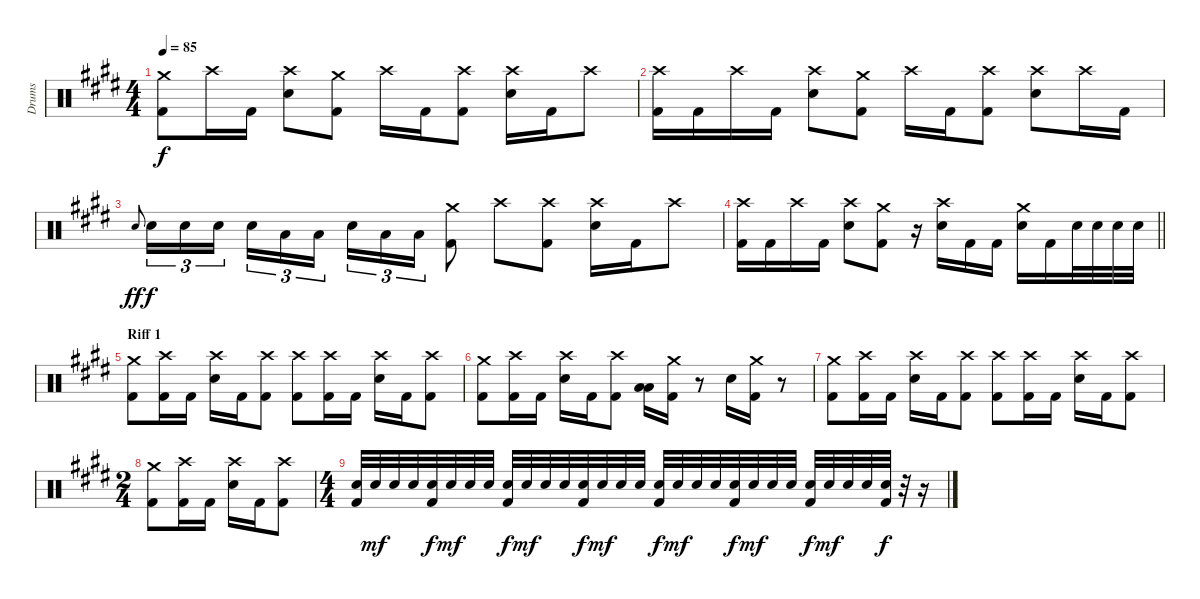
\track ("Drums" "Drums") {instrument percussion}
\staff {score}
\articulation defaults
\ts (4 4)
\tempo 85
\clef neutral
\ks e
("Crash medium (hit)" "Kick (hit) 2").8{dy f} "Crash high (hit)".16 "Kick (hit) 2".16 ("Electric Snare (hit)" "Crash high (hit)").8 ("Kick (hit) 2" "Crash medium (hit)").8 "Crash high (hit)".16 "Kick (hit) 2".16 ("Kick (hit) 2" "Crash high (hit)").8 ("Electric Snare (hit)" "Crash high (hit)").16 "Kick (hit) 2".16 "Crash high (hit)".8 |
("Crash high (hit)" "Kick (hit) 2").16 "Kick (hit) 2".16 "Crash high (hit)".16 "Kick (hit) 2".16 ("Electric Snare (hit)" "Crash high (hit)").8 ("Kick (hit) 2" "Crash medium (hit)").8 "Crash high (hit)".16 "Kick (hit) 2".16 ("Kick (hit) 2" "Crash high (hit)").8 ("Electric Snare (hit)" "Crash high (hit)").8 "Crash high (hit)".16 "Kick (hit) 2".16 |
"Electric Snare (hit)".8{gr onbeat dy ff} "Electric Snare (hit)".16{tu (3 2) dy f} "Electric Snare (hit)".16{tu (3 2)} "Electric Snare (hit)".16{tu (3 2) beam splitsecondary} "Electric Snare (hit)".16{tu (3 2)} "Low Tom (hit)".16{tu (3 2)} "Low Tom (hit)".16{tu (3 2)} "Electric Snare (hit)".16{tu (3 2)} "Low Floor Tom (hit)".16{tu (3 2)} "Low Floor Tom (hit)".16{tu (3 2)} ("Kick (hit) 2" "Crash medium (hit)").8 "Crash high (hit)".8 ("Kick (hit) 2" "Crash high (hit)").8 ("Electric Snare (hit)" "Crash high (hit)").16 "Kick (hit) 2".16 "Crash high (hit)".8 |
\barLineRight lightlight
("Crash high (hit)" "Kick (hit) 2").16 "Kick (hit) 2".16 "Crash high (hit)".16 "Kick (hit) 2".16 ("Electric Snare (hit)" "Crash high (hit)").8 ("Kick (hit) 2" "Crash medium (hit)").8 r.16 ("Electric Snare (hit)" "Crash high (hit)").16 "Kick (hit) 2".16 "Kick (hit) 2".16 ("Crash medium (hit)" "Electric Snare (hit)").16 "Kick (hit) 2".16 "Electric Snare (hit)".32 "Electric Snare (hit)".32 "Electric Snare (hit)".32 "Electric Snare (hit)".32 |
\section ("" "Riff 1")
("Kick (hit) 2" "Crash medium (hit)").8 ("Kick (hit) 2" "Crash high (hit)").16 "Kick (hit) 2".16 ("Electric Snare (hit)" "Crash high (hit)").16 "Kick (hit) 2".16 ("Kick (hit) 2" "Crash high (hit)").8 ("Kick (hit) 2" "Crash high (hit)").8 ("Kick (hit) 2" "Crash high (hit)").16 "Kick (hit) 2".16 ("Electric Snare (hit)" "Crash high (hit)").16 "Kick (hit) 2".16 ("Kick (hit) 2" "Crash high (hit)").8 |
("Kick (hit) 2" "Crash medium (hit)").8 ("Kick (hit) 2" "Crash high (hit)").16 "Kick (hit) 2".16 ("Electric Snare (hit)" "Crash high (hit)").16 "Kick (hit) 2".16 ("Kick (hit) 2" "Crash high (hit)").8 ("Low Tom (hit)" "Low Floor Tom (hit)").16 ("Kick (hit) 2" "Crash medium (hit)").16 r.8 "Electric Snare (hit)".16 ("Kick (hit) 2" "Crash medium (hit)").16 r.8 |
("Kick (hit) 2" "Crash medium (hit)").8 ("Kick (hit) 2" "Crash high (hit)").16 "Kick (hit) 2".16 ("Electric Snare (hit)" "Crash high (hit)").16 "Kick (hit) 2".16 ("Kick (hit) 2" "Crash high (hit)").8 ("Kick (hit) 2" "Crash high (hit)").8 ("Kick (hit) 2" "Crash high (hit)").16 "Kick (hit) 2".16 ("Electric Snare (hit)" "Crash high (hit)").16 "Kick (hit) 2".16 ("Kick (hit) 2" "Crash high (hit)").8 |
\ts (2 4)
("Kick (hit) 2" "Crash medium (hit)").8 ("Kick (hit) 2" "Crash high (hit)").16 "Kick (hit) 2".16 ("Electric Snare (hit)" "Crash high (hit)").16 "Kick (hit) 2".16 ("Kick (hit) 2" "Crash high (hit)").8 |
\ts (4 4)
("Electric Snare (hit)" "Kick (hit) 2").32 "Electric Snare (hit)".32{dy mf} "Electric Snare (hit)".32 "Electric Snare (hit)".32 ("Electric Snare (hit)" "Kick (hit) 2").32{dy f} "Electric Snare (hit)".32{dy mf} "Electric Snare (hit)".32 "Electric Snare (hit)".32 ("Electric Snare (hit)" "Kick (hit) 2").32{dy f} "Electric Snare (hit)".32{dy mf} "Electric Snare (hit)".32 "Electric Snare (hit)".32 ("Electric Snare (hit)" "Kick (hit) 2").32{dy f} "Electric Snare (hit)".32{dy mf} "Electric Snare (hit)".32 "Electric Snare (hit)".32 ("Electric Snare (hit)" "Kick (hit) 2").32{dy f} "Electric Snare (hit)".32{dy mf} "Electric Snare (hit)".32 "Electric Snare (hit)".32 ("Electric Snare (hit)" "Kick (hit) 2").32{dy f} "Electric Snare (hit)".32{dy mf} "Electric Snare (hit)".32 "Electric Snare (hit)".32 ("Electric Snare (hit)" "Kick (hit) 2").32{dy f} "Electric Snare (hit)".32{dy mf} "Electric Snare (hit)".32 "Electric Snare (hit)".32 ("Electric Snare (hit)" "Kick (hit) 2").32{dy f} r.32 r.16
